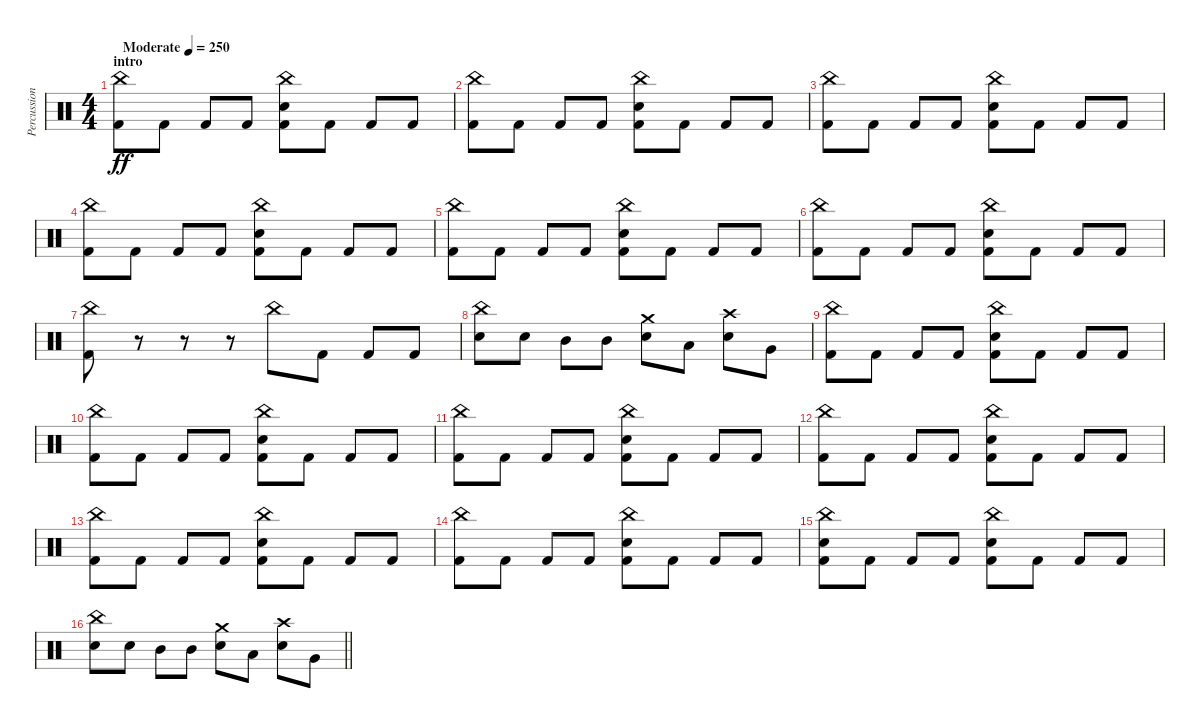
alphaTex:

\track ("Percussions" "Percussion") {instrument percussion}
\staff {score}
\articulation defaults
\ts (4 4)
\section ("" "intro")
\tempo (250 "Moderate")
\clef neutral
\ks c
("China (hit)" "Kick (hit) 2").8{dy ff} "Kick (hit) 2".8 "Kick (hit) 2".8 "Kick (hit) 2".8 ("China (hit)" "Electric Snare (hit)" "Kick (hit) 2").8 "Kick (hit) 2".8 "Kick (hit) 2".8 "Kick (hit) 2".8 |
("China (hit)" "Kick (hit) 2").8 "Kick (hit) 2".8 "Kick (hit) 2".8 "Kick (hit) 2".8 ("China (hit)" "Electric Snare (hit)" "Kick (hit) 2").8 "Kick (hit) 2".8 "Kick (hit) 2".8 "Kick (hit) 2".8 |
("China (hit)" "Kick (hit) 2").8 "Kick (hit) 2".8 "Kick (hit) 2".8 "Kick (hit) 2".8 ("China (hit)" "Electric Snare (hit)" "Kick (hit) 2").8 "Kick (hit) 2".8 "Kick (hit) 2".8 "Kick (hit) 2".8 |
("China (hit)" "Kick (hit) 2").8 "Kick (hit) 2".8 "Kick (hit) 2".8 "Kick (hit) 2".8 ("China (hit)" "Electric Snare (hit)" "Kick (hit) 2").8 "Kick (hit) 2".8 "Kick (hit) 2".8 "Kick (hit) 2".8 |
("China (hit)" "Kick (hit) 2").8 "Kick (hit) 2".8 "Kick (hit) 2".8 "Kick (hit) 2".8 ("China (hit)" "Electric Snare (hit)" "Kick (hit) 2").8 "Kick (hit) 2".8 "Kick (hit) 2".8 "Kick (hit) 2".8 |
("China (hit)" "Kick (hit) 2").8 "Kick (hit) 2".8 "Kick (hit) 2".8 "Kick (hit) 2".8 ("China (hit)" "Electric Snare (hit)" "Kick (hit) 2").8 "Kick (hit) 2".8 "Kick (hit) 2".8 "Kick (hit) 2".8 |
("China (hit)" "Kick (hit) 2").8 r.8 r.8 r.8 "China (hit)".8 "Kick (hit) 2".8 "Kick (hit) 2".8 "Kick (hit) 2".8 |
("China (hit)" "Electric Snare (hit)").8 "Electric Snare (hit)".8 "Mid Tom (hit)".8 "Mid Tom (hit)".8 ("Crash medium (hit)" "Electric Snare (hit)").8 "Low Tom (hit)".8 ("Crash high (hit)" "Electric Snare (hit)").8 "Very Low Tom (hit)".8 |
("China (hit)" "Kick (hit) 2").8 "Kick (hit) 2".8 "Kick (hit) 2".8 "Kick (hit) 2".8 ("China (hit)" "Electric Snare (hit)" "Kick (hit) 2").8 "Kick (hit) 2".8 "Kick (hit) 2".8 "Kick (hit) 2".8 |
("China (hit)" "Kick (hit) 2").8 "Kick (hit) 2".8 "Kick (hit) 2".8 "Kick (hit) 2".8 ("China (hit)" "Electric Snare (hit)" "Kick (hit) 2").8 "Kick (hit) 2".8 "Kick (hit) 2".8 "Kick (hit) 2".8 |
("China (hit)" "Kick (hit) 2").8 "Kick (hit) 2".8 "Kick (hit) 2".8 "Kick (hit) 2".8 ("China (hit)" "Electric Snare (hit)" "Kick (hit) 2").8 "Kick (hit) 2".8 "Kick (hit) 2".8 "Kick (hit) 2".8 |
("China (hit)" "Kick (hit) 2").8 "Kick (hit) 2".8 "Kick (hit) 2".8 "Kick (hit) 2".8 ("China (hit)" "Electric Snare (hit)" "Kick (hit) 2").8 "Kick (hit) 2".8 "Kick (hit) 2".8 "Kick (hit) 2".8 |
("China (hit)" "Kick (hit) 2").8 "Kick (hit) 2".8 "Kick (hit) 2".8 "Kick (hit) 2".8 ("China (hit)" "Electric Snare (hit)" "Kick (hit) 2").8 "Kick (hit) 2".8 "Kick (hit) 2".8 "Kick (hit) 2".8 |
("China (hit)" "Kick (hit) 2").8 "Kick (hit) 2".8 "Kick (hit) 2".8 "Kick (hit) 2".8 ("China (hit)" "Electric Snare (hit)" "Kick (hit) 2").8 "Kick (hit) 2".8 "Kick (hit) 2".8 "Kick (hit) 2".8 |
("China (hit)" "Electric Snare (hit)" "Kick (hit) 2").8 "Kick (hit) 2".8 "Kick (hit) 2".8 "Kick (hit) 2".8 ("China (hit)" "Electric Snare (hit)" "Kick (hit) 2").8 "Kick (hit) 2".8 "Kick (hit) 2".8 "Kick (hit) 2".8 |
\barLineRight lightlight
("China (hit)" "Electric Snare (hit)").8 "Electric Snare (hit)".8 "Mid Tom (hit)".8 "Mid Tom (hit)".8 ("Crash medium (hit)" "Electric Snare (hit)").8 "Low Tom (hit)".8 ("Crash high (hit)" "Electric Snare (hit)").8 "Very Low Tom (hit)".8
